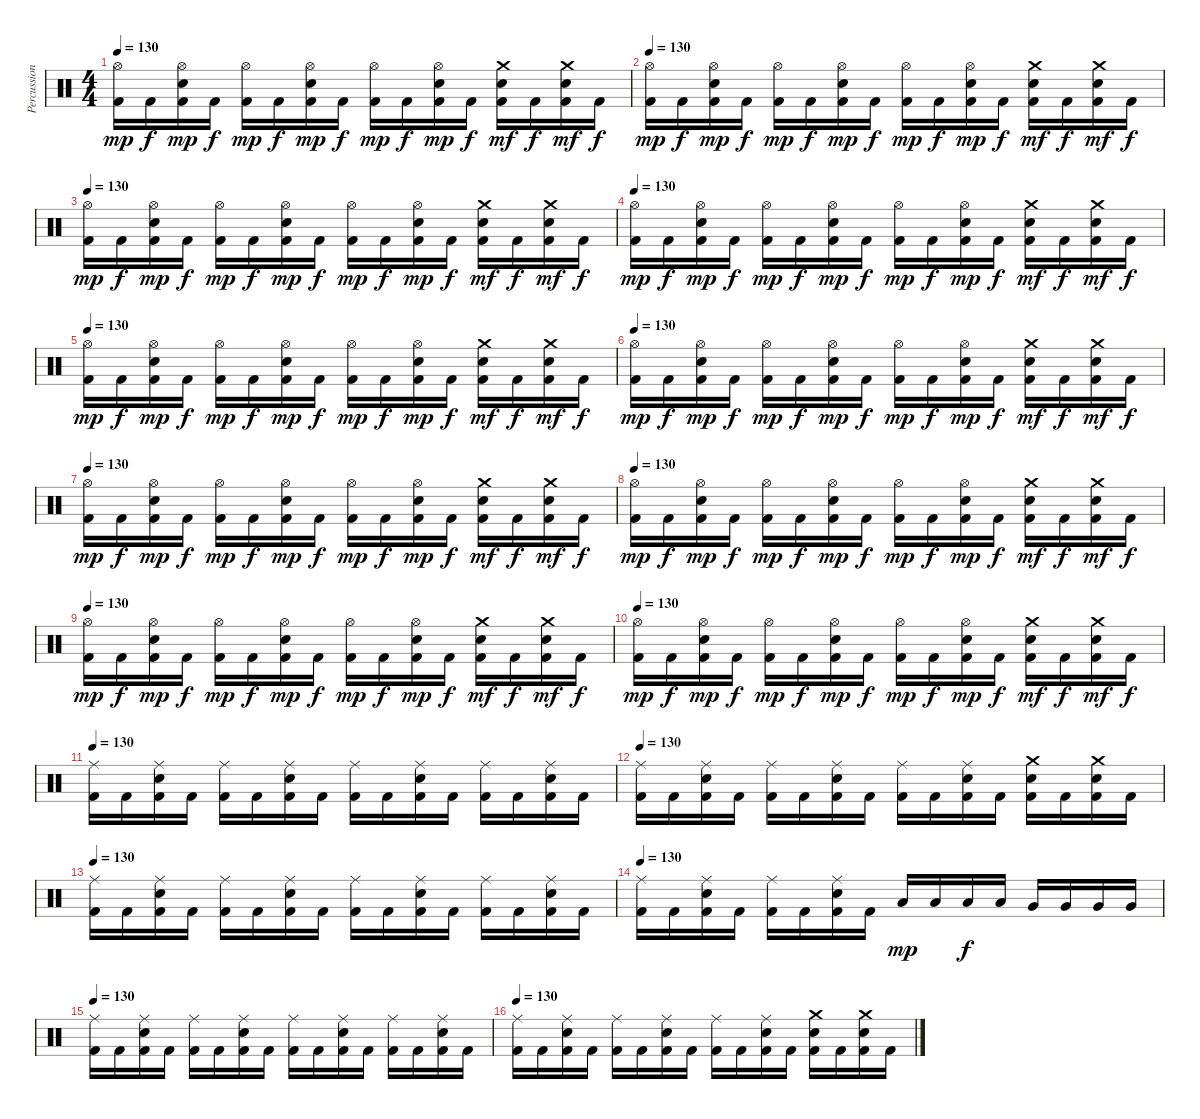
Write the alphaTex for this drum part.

\track ("Percussion" "Percussion") {instrument percussion}
\staff {score}
\articulation defaults
\ts (4 4)
\tempo 130
\clef neutral
\ks c
("Hi-Hat (open)" "Kick (hit) 2").16{dy mp} "Kick (hit) 2".16{dy f} ("Hi-Hat (open)" "Snare (hit) 2" "Kick (hit) 2").16{dy mp} "Kick (hit) 2".16{dy f} ("Hi-Hat (open)" "Kick (hit) 2").16{dy mp} "Kick (hit) 2".16{dy f} ("Hi-Hat (open)" "Snare (hit) 2" "Kick (hit) 2").16{dy mp} "Kick (hit) 2".16{dy f} ("Hi-Hat (open)" "Kick (hit) 2").16{dy mp} "Kick (hit) 2".16{dy f} ("Hi-Hat (open)" "Snare (hit) 2" "Kick (hit) 2").16{dy mp} "Kick (hit) 2".16{dy f} ("Crash medium (hit)" "Snare (hit) 2" "Kick (hit) 2").16{dy mf} "Kick (hit) 2".16{dy f} ("Crash medium (hit)" "Snare (hit) 2" "Kick (hit) 2").16{dy mf} "Kick (hit) 2".16{dy f} |
\tempo 130
("Hi-Hat (open)" "Kick (hit) 2").16{dy mp} "Kick (hit) 2".16{dy f} ("Hi-Hat (open)" "Snare (hit) 2" "Kick (hit) 2").16{dy mp} "Kick (hit) 2".16{dy f} ("Hi-Hat (open)" "Kick (hit) 2").16{dy mp} "Kick (hit) 2".16{dy f} ("Hi-Hat (open)" "Snare (hit) 2" "Kick (hit) 2").16{dy mp} "Kick (hit) 2".16{dy f} ("Hi-Hat (open)" "Kick (hit) 2").16{dy mp} "Kick (hit) 2".16{dy f} ("Hi-Hat (open)" "Snare (hit) 2" "Kick (hit) 2").16{dy mp} "Kick (hit) 2".16{dy f} ("Crash medium (hit)" "Snare (hit) 2" "Kick (hit) 2").16{dy mf} "Kick (hit) 2".16{dy f} ("Crash medium (hit)" "Snare (hit) 2" "Kick (hit) 2").16{dy mf} "Kick (hit) 2".16{dy f} |
\tempo 130
("Hi-Hat (open)" "Kick (hit) 2").16{dy mp} "Kick (hit) 2".16{dy f} ("Hi-Hat (open)" "Snare (hit) 2" "Kick (hit) 2").16{dy mp} "Kick (hit) 2".16{dy f} ("Hi-Hat (open)" "Kick (hit) 2").16{dy mp} "Kick (hit) 2".16{dy f} ("Hi-Hat (open)" "Snare (hit) 2" "Kick (hit) 2").16{dy mp} "Kick (hit) 2".16{dy f} ("Hi-Hat (open)" "Kick (hit) 2").16{dy mp} "Kick (hit) 2".16{dy f} ("Hi-Hat (open)" "Snare (hit) 2" "Kick (hit) 2").16{dy mp} "Kick (hit) 2".16{dy f} ("Crash medium (hit)" "Snare (hit) 2" "Kick (hit) 2").16{dy mf} "Kick (hit) 2".16{dy f} ("Crash medium (hit)" "Snare (hit) 2" "Kick (hit) 2").16{dy mf} "Kick (hit) 2".16{dy f} |
\tempo 130
("Hi-Hat (open)" "Kick (hit) 2").16{dy mp} "Kick (hit) 2".16{dy f} ("Hi-Hat (open)" "Snare (hit) 2" "Kick (hit) 2").16{dy mp} "Kick (hit) 2".16{dy f} ("Hi-Hat (open)" "Kick (hit) 2").16{dy mp} "Kick (hit) 2".16{dy f} ("Hi-Hat (open)" "Snare (hit) 2" "Kick (hit) 2").16{dy mp} "Kick (hit) 2".16{dy f} ("Hi-Hat (open)" "Kick (hit) 2").16{dy mp} "Kick (hit) 2".16{dy f} ("Hi-Hat (open)" "Snare (hit) 2" "Kick (hit) 2").16{dy mp} "Kick (hit) 2".16{dy f} ("Crash medium (hit)" "Snare (hit) 2" "Kick (hit) 2").16{dy mf} "Kick (hit) 2".16{dy f} ("Crash medium (hit)" "Snare (hit) 2" "Kick (hit) 2").16{dy mf} "Kick (hit) 2".16{dy f} |
\tempo 130
("Hi-Hat (open)" "Kick (hit) 2").16{dy mp} "Kick (hit) 2".16{dy f} ("Hi-Hat (open)" "Snare (hit) 2" "Kick (hit) 2").16{dy mp} "Kick (hit) 2".16{dy f} ("Hi-Hat (open)" "Kick (hit) 2").16{dy mp} "Kick (hit) 2".16{dy f} ("Hi-Hat (open)" "Snare (hit) 2" "Kick (hit) 2").16{dy mp} "Kick (hit) 2".16{dy f} ("Hi-Hat (open)" "Kick (hit) 2").16{dy mp} "Kick (hit) 2".16{dy f} ("Hi-Hat (open)" "Snare (hit) 2" "Kick (hit) 2").16{dy mp} "Kick (hit) 2".16{dy f} ("Crash medium (hit)" "Snare (hit) 2" "Kick (hit) 2").16{dy mf} "Kick (hit) 2".16{dy f} ("Crash medium (hit)" "Snare (hit) 2" "Kick (hit) 2").16{dy mf} "Kick (hit) 2".16{dy f} |
\tempo 130
("Hi-Hat (open)" "Kick (hit) 2").16{dy mp} "Kick (hit) 2".16{dy f} ("Hi-Hat (open)" "Snare (hit) 2" "Kick (hit) 2").16{dy mp} "Kick (hit) 2".16{dy f} ("Hi-Hat (open)" "Kick (hit) 2").16{dy mp} "Kick (hit) 2".16{dy f} ("Hi-Hat (open)" "Snare (hit) 2" "Kick (hit) 2").16{dy mp} "Kick (hit) 2".16{dy f} ("Hi-Hat (open)" "Kick (hit) 2").16{dy mp} "Kick (hit) 2".16{dy f} ("Hi-Hat (open)" "Snare (hit) 2" "Kick (hit) 2").16{dy mp} "Kick (hit) 2".16{dy f} ("Crash medium (hit)" "Snare (hit) 2" "Kick (hit) 2").16{dy mf} "Kick (hit) 2".16{dy f} ("Crash medium (hit)" "Snare (hit) 2" "Kick (hit) 2").16{dy mf} "Kick (hit) 2".16{dy f} |
\tempo 130
("Hi-Hat (open)" "Kick (hit) 2").16{dy mp} "Kick (hit) 2".16{dy f} ("Hi-Hat (open)" "Snare (hit) 2" "Kick (hit) 2").16{dy mp} "Kick (hit) 2".16{dy f} ("Hi-Hat (open)" "Kick (hit) 2").16{dy mp} "Kick (hit) 2".16{dy f} ("Hi-Hat (open)" "Snare (hit) 2" "Kick (hit) 2").16{dy mp} "Kick (hit) 2".16{dy f} ("Hi-Hat (open)" "Kick (hit) 2").16{dy mp} "Kick (hit) 2".16{dy f} ("Hi-Hat (open)" "Snare (hit) 2" "Kick (hit) 2").16{dy mp} "Kick (hit) 2".16{dy f} ("Crash medium (hit)" "Snare (hit) 2" "Kick (hit) 2").16{dy mf} "Kick (hit) 2".16{dy f} ("Crash medium (hit)" "Snare (hit) 2" "Kick (hit) 2").16{dy mf} "Kick (hit) 2".16{dy f} |
\tempo 130
("Hi-Hat (open)" "Kick (hit) 2").16{dy mp} "Kick (hit) 2".16{dy f} ("Hi-Hat (open)" "Snare (hit) 2" "Kick (hit) 2").16{dy mp} "Kick (hit) 2".16{dy f} ("Hi-Hat (open)" "Kick (hit) 2").16{dy mp} "Kick (hit) 2".16{dy f} ("Hi-Hat (open)" "Snare (hit) 2" "Kick (hit) 2").16{dy mp} "Kick (hit) 2".16{dy f} ("Hi-Hat (open)" "Kick (hit) 2").16{dy mp} "Kick (hit) 2".16{dy f} ("Hi-Hat (open)" "Snare (hit) 2" "Kick (hit) 2").16{dy mp} "Kick (hit) 2".16{dy f} ("Crash medium (hit)" "Snare (hit) 2" "Kick (hit) 2").16{dy mf} "Kick (hit) 2".16{dy f} ("Crash medium (hit)" "Snare (hit) 2" "Kick (hit) 2").16{dy mf} "Kick (hit) 2".16{dy f} |
\tempo 130
("Hi-Hat (open)" "Kick (hit) 2").16{dy mp} "Kick (hit) 2".16{dy f} ("Hi-Hat (open)" "Snare (hit) 2" "Kick (hit) 2").16{dy mp} "Kick (hit) 2".16{dy f} ("Hi-Hat (open)" "Kick (hit) 2").16{dy mp} "Kick (hit) 2".16{dy f} ("Hi-Hat (open)" "Snare (hit) 2" "Kick (hit) 2").16{dy mp} "Kick (hit) 2".16{dy f} ("Hi-Hat (open)" "Kick (hit) 2").16{dy mp} "Kick (hit) 2".16{dy f} ("Hi-Hat (open)" "Snare (hit) 2" "Kick (hit) 2").16{dy mp} "Kick (hit) 2".16{dy f} ("Crash medium (hit)" "Snare (hit) 2" "Kick (hit) 2").16{dy mf} "Kick (hit) 2".16{dy f} ("Crash medium (hit)" "Snare (hit) 2" "Kick (hit) 2").16{dy mf} "Kick (hit) 2".16{dy f} |
\tempo 130
("Hi-Hat (open)" "Kick (hit) 2").16{dy mp} "Kick (hit) 2".16{dy f} ("Hi-Hat (open)" "Snare (hit) 2" "Kick (hit) 2").16{dy mp} "Kick (hit) 2".16{dy f} ("Hi-Hat (open)" "Kick (hit) 2").16{dy mp} "Kick (hit) 2".16{dy f} ("Hi-Hat (open)" "Snare (hit) 2" "Kick (hit) 2").16{dy mp} "Kick (hit) 2".16{dy f} ("Hi-Hat (open)" "Kick (hit) 2").16{dy mp} "Kick (hit) 2".16{dy f} ("Hi-Hat (open)" "Snare (hit) 2" "Kick (hit) 2").16{dy mp} "Kick (hit) 2".16{dy f} ("Crash medium (hit)" "Snare (hit) 2" "Kick (hit) 2").16{dy mf} "Kick (hit) 2".16{dy f} ("Crash medium (hit)" "Snare (hit) 2" "Kick (hit) 2").16{dy mf} "Kick (hit) 2".16{dy f} |
\tempo 130
("Ride (middle)" "Kick (hit) 2").16 "Kick (hit) 2".16 ("Ride (middle)" "Snare (hit) 2" "Kick (hit) 2").16 "Kick (hit) 2".16 ("Ride (middle)" "Kick (hit) 2").16 "Kick (hit) 2".16 ("Ride (middle)" "Snare (hit) 2" "Kick (hit) 2").16 "Kick (hit) 2".16 ("Ride (middle)" "Kick (hit) 2").16 "Kick (hit) 2".16 ("Ride (middle)" "Snare (hit) 2" "Kick (hit) 2").16 "Kick (hit) 2".16 ("Ride (middle)" "Kick (hit) 2").16 "Kick (hit) 2".16 ("Ride (middle)" "Snare (hit) 2" "Kick (hit) 2").16 "Kick (hit) 2".16 |
\tempo 130
("Ride (middle)" "Kick (hit) 2").16 "Kick (hit) 2".16 ("Ride (middle)" "Snare (hit) 2" "Kick (hit) 2").16 "Kick (hit) 2".16 ("Ride (middle)" "Kick (hit) 2").16 "Kick (hit) 2".16 ("Ride (middle)" "Snare (hit) 2" "Kick (hit) 2").16 "Kick (hit) 2".16 ("Ride (middle)" "Kick (hit) 2").16 "Kick (hit) 2".16 ("Ride (middle)" "Snare (hit) 2" "Kick (hit) 2").16 "Kick (hit) 2".16 ("Crash medium (hit)" "Snare (hit) 2" "Kick (hit) 2").16 "Kick (hit) 2".16 ("Crash medium (hit)" "Snare (hit) 2" "Kick (hit) 2").16 "Kick (hit) 2".16 |
\tempo 130
("Ride (middle)" "Kick (hit) 2").16 "Kick (hit) 2".16 ("Ride (middle)" "Snare (hit) 2" "Kick (hit) 2").16 "Kick (hit) 2".16 ("Ride (middle)" "Kick (hit) 2").16 "Kick (hit) 2".16 ("Ride (middle)" "Snare (hit) 2" "Kick (hit) 2").16 "Kick (hit) 2".16 ("Ride (middle)" "Kick (hit) 2").16 "Kick (hit) 2".16 ("Ride (middle)" "Snare (hit) 2" "Kick (hit) 2").16 "Kick (hit) 2".16 ("Ride (middle)" "Kick (hit) 2").16 "Kick (hit) 2".16 ("Ride (middle)" "Snare (hit) 2" "Kick (hit) 2").16 "Kick (hit) 2".16 |
\tempo 130
("Ride (middle)" "Kick (hit) 2").16 "Kick (hit) 2".16 ("Ride (middle)" "Snare (hit) 2" "Kick (hit) 2").16 "Kick (hit) 2".16 ("Ride (middle)" "Kick (hit) 2").16 "Kick (hit) 2".16 ("Ride (middle)" "Snare (hit) 2" "Kick (hit) 2").16 "Kick (hit) 2".16 "Low Tom (hit)".16{dy mp} "Low Tom (hit)".16 "Low Tom (hit)".16{dy f} "Low Tom (hit)".16 "Very Low Tom (hit)".16 "Very Low Tom (hit)".16 "Very Low Tom (hit)".16 "Very Low Tom (hit)".16 |
\tempo 130
("Ride (middle)" "Kick (hit) 2").16 "Kick (hit) 2".16 ("Ride (middle)" "Snare (hit) 2" "Kick (hit) 2").16 "Kick (hit) 2".16 ("Ride (middle)" "Kick (hit) 2").16 "Kick (hit) 2".16 ("Ride (middle)" "Snare (hit) 2" "Kick (hit) 2").16 "Kick (hit) 2".16 ("Ride (middle)" "Kick (hit) 2").16 "Kick (hit) 2".16 ("Ride (middle)" "Snare (hit) 2" "Kick (hit) 2").16 "Kick (hit) 2".16 ("Ride (middle)" "Kick (hit) 2").16 "Kick (hit) 2".16 ("Ride (middle)" "Snare (hit) 2" "Kick (hit) 2").16 "Kick (hit) 2".16 |
\tempo 130
("Ride (middle)" "Kick (hit) 2").16 "Kick (hit) 2".16 ("Ride (middle)" "Snare (hit) 2" "Kick (hit) 2").16 "Kick (hit) 2".16 ("Ride (middle)" "Kick (hit) 2").16 "Kick (hit) 2".16 ("Ride (middle)" "Snare (hit) 2" "Kick (hit) 2").16 "Kick (hit) 2".16 ("Ride (middle)" "Kick (hit) 2").16 "Kick (hit) 2".16 ("Ride (middle)" "Snare (hit) 2" "Kick (hit) 2").16 "Kick (hit) 2".16 ("Crash medium (hit)" "Snare (hit) 2" "Kick (hit) 2").16 "Kick (hit) 2".16 ("Crash medium (hit)" "Snare (hit) 2" "Kick (hit) 2").16 "Kick (hit) 2".16
